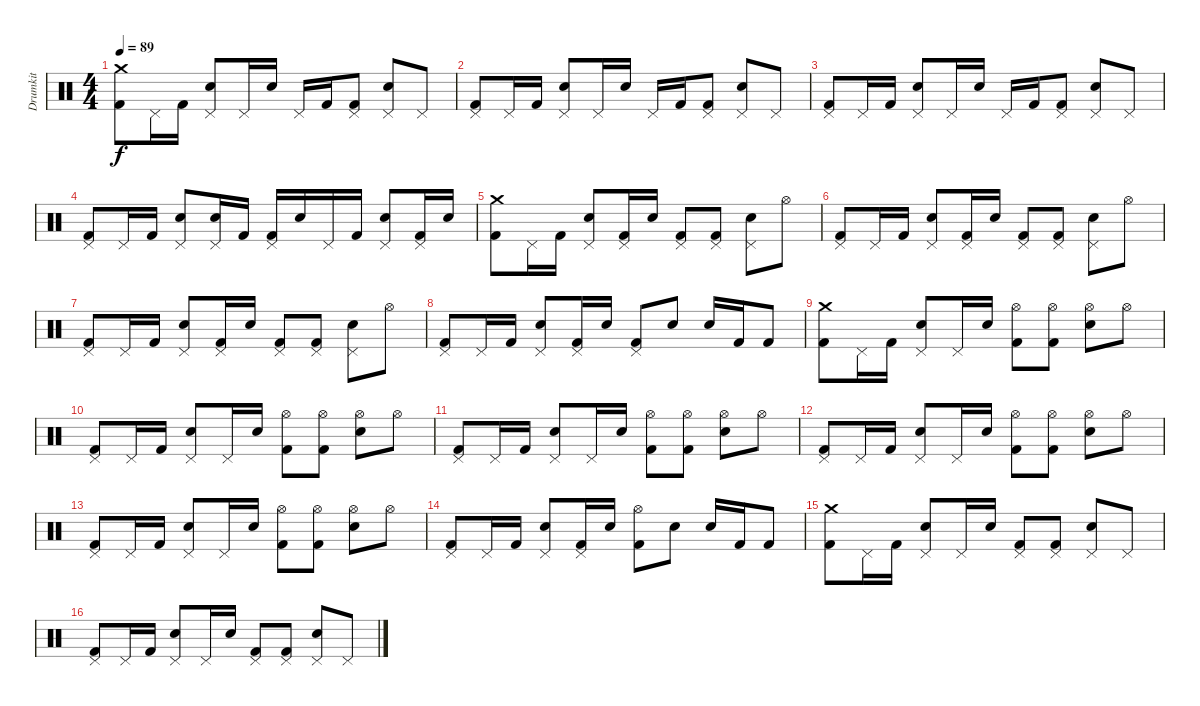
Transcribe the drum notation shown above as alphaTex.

\track ("Drumkit" "Drumkit") {instrument percussion}
\staff {score}
\articulation defaults
\ts (4 4)
\tempo 89
\clef neutral
\ks c
("Crash medium (hit)" "Kick (hit) 2").8{dy f} "Pedal Hi-Hat (hit)".16 "Kick (hit) 2".16 ("Pedal Hi-Hat (hit)" "Snare (hit) 2").8 "Pedal Hi-Hat (hit)".16 "Snare (hit) 2".16 "Pedal Hi-Hat (hit)".16 "Kick (hit) 2".16 ("Pedal Hi-Hat (hit)" "Kick (hit) 2").8 ("Pedal Hi-Hat (hit)" "Snare (hit) 2").8 "Pedal Hi-Hat (hit)".8 |
("Pedal Hi-Hat (hit)" "Kick (hit) 2").8 "Pedal Hi-Hat (hit)".16 "Kick (hit) 2".16 ("Pedal Hi-Hat (hit)" "Snare (hit) 2").8 "Pedal Hi-Hat (hit)".16 "Snare (hit) 2".16 "Pedal Hi-Hat (hit)".16 "Kick (hit) 2".16 ("Pedal Hi-Hat (hit)" "Kick (hit) 2").8 ("Pedal Hi-Hat (hit)" "Snare (hit) 2").8 "Pedal Hi-Hat (hit)".8 |
("Pedal Hi-Hat (hit)" "Kick (hit) 2").8 "Pedal Hi-Hat (hit)".16 "Kick (hit) 2".16 ("Pedal Hi-Hat (hit)" "Snare (hit) 2").8 "Pedal Hi-Hat (hit)".16 "Snare (hit) 2".16 "Pedal Hi-Hat (hit)".16 "Kick (hit) 2".16 ("Pedal Hi-Hat (hit)" "Kick (hit) 2").8 ("Pedal Hi-Hat (hit)" "Snare (hit) 2").8 "Pedal Hi-Hat (hit)".8 |
("Pedal Hi-Hat (hit)" "Kick (hit) 2").8 "Pedal Hi-Hat (hit)".16 "Kick (hit) 2".16 ("Pedal Hi-Hat (hit)" "Snare (hit) 2").8 ("Pedal Hi-Hat (hit)" "Snare (hit) 2").16 "Kick (hit) 2".16 ("Pedal Hi-Hat (hit)" "Kick (hit) 2").16 "Snare (hit) 2".16 "Pedal Hi-Hat (hit)".16 "Kick (hit) 2".16 ("Pedal Hi-Hat (hit)" "Snare (hit) 2").8 ("Pedal Hi-Hat (hit)" "Kick (hit) 2").16 "Snare (hit) 2".16 |
("Crash medium (hit)" "Kick (hit) 2").8 "Pedal Hi-Hat (hit)".16 "Kick (hit) 2".16 ("Pedal Hi-Hat (hit)" "Snare (hit) 2").8 ("Pedal Hi-Hat (hit)" "Kick (hit) 2").16 "Snare (hit) 2".16 ("Pedal Hi-Hat (hit)" "Kick (hit) 2").8 ("Pedal Hi-Hat (hit)" "Kick (hit) 2").8 ("Pedal Hi-Hat (hit)" "Snare (hit) 2").8 "Hi-Hat (open)".8 |
("Pedal Hi-Hat (hit)" "Kick (hit) 2").8 "Pedal Hi-Hat (hit)".16 "Kick (hit) 2".16 ("Pedal Hi-Hat (hit)" "Snare (hit) 2").8 ("Pedal Hi-Hat (hit)" "Kick (hit) 2").16 "Snare (hit) 2".16 ("Pedal Hi-Hat (hit)" "Kick (hit) 2").8 ("Pedal Hi-Hat (hit)" "Kick (hit) 2").8 ("Pedal Hi-Hat (hit)" "Snare (hit) 2").8 "Hi-Hat (open)".8 |
("Pedal Hi-Hat (hit)" "Kick (hit) 2").8 "Pedal Hi-Hat (hit)".16 "Kick (hit) 2".16 ("Pedal Hi-Hat (hit)" "Snare (hit) 2").8 ("Pedal Hi-Hat (hit)" "Kick (hit) 2").16 "Snare (hit) 2".16 ("Pedal Hi-Hat (hit)" "Kick (hit) 2").8 ("Pedal Hi-Hat (hit)" "Kick (hit) 2").8 ("Pedal Hi-Hat (hit)" "Snare (hit) 2").8 "Hi-Hat (open)".8 |
("Pedal Hi-Hat (hit)" "Kick (hit) 2").8 "Pedal Hi-Hat (hit)".16 "Kick (hit) 2".16 ("Pedal Hi-Hat (hit)" "Snare (hit) 2").8 ("Pedal Hi-Hat (hit)" "Kick (hit) 2").16 "Snare (hit) 2".16 ("Pedal Hi-Hat (hit)" "Kick (hit) 2").8 "Snare (hit) 2".8 "Snare (hit) 2".16 "Kick (hit) 2".16 "Kick (hit) 2".8 |
("Crash medium (hit)" "Kick (hit) 2").8 "Pedal Hi-Hat (hit)".16 "Kick (hit) 2".16 ("Pedal Hi-Hat (hit)" "Snare (hit) 2").8 "Pedal Hi-Hat (hit)".16 "Snare (hit) 2".16 ("Hi-Hat (open)" "Kick (hit) 2").8 ("Hi-Hat (open)" "Kick (hit) 2").8 ("Hi-Hat (open)" "Snare (hit) 2").8 "Hi-Hat (open)".8 |
("Pedal Hi-Hat (hit)" "Kick (hit) 2").8 "Pedal Hi-Hat (hit)".16 "Kick (hit) 2".16 ("Pedal Hi-Hat (hit)" "Snare (hit) 2").8 "Pedal Hi-Hat (hit)".16 "Snare (hit) 2".16 ("Hi-Hat (open)" "Kick (hit) 2").8 ("Hi-Hat (open)" "Kick (hit) 2").8 ("Hi-Hat (open)" "Snare (hit) 2").8 "Hi-Hat (open)".8 |
("Pedal Hi-Hat (hit)" "Kick (hit) 2").8 "Pedal Hi-Hat (hit)".16 "Kick (hit) 2".16 ("Pedal Hi-Hat (hit)" "Snare (hit) 2").8 "Pedal Hi-Hat (hit)".16 "Snare (hit) 2".16 ("Hi-Hat (open)" "Kick (hit) 2").8 ("Hi-Hat (open)" "Kick (hit) 2").8 ("Hi-Hat (open)" "Snare (hit) 2").8 "Hi-Hat (open)".8 |
("Pedal Hi-Hat (hit)" "Kick (hit) 2").8 "Pedal Hi-Hat (hit)".16 "Kick (hit) 2".16 ("Pedal Hi-Hat (hit)" "Snare (hit) 2").8 "Pedal Hi-Hat (hit)".16 "Snare (hit) 2".16 ("Hi-Hat (open)" "Kick (hit) 2").8 ("Hi-Hat (open)" "Kick (hit) 2").8 ("Hi-Hat (open)" "Snare (hit) 2").8 "Hi-Hat (open)".8 |
("Pedal Hi-Hat (hit)" "Kick (hit) 2").8 "Pedal Hi-Hat (hit)".16 "Kick (hit) 2".16 ("Pedal Hi-Hat (hit)" "Snare (hit) 2").8 "Pedal Hi-Hat (hit)".16 "Snare (hit) 2".16 ("Hi-Hat (open)" "Kick (hit) 2").8 ("Hi-Hat (open)" "Kick (hit) 2").8 ("Hi-Hat (open)" "Snare (hit) 2").8 "Hi-Hat (open)".8 |
("Pedal Hi-Hat (hit)" "Kick (hit) 2").8 "Pedal Hi-Hat (hit)".16 "Kick (hit) 2".16 ("Pedal Hi-Hat (hit)" "Snare (hit) 2").8 ("Pedal Hi-Hat (hit)" "Kick (hit) 2").16 "Snare (hit) 2".16 ("Hi-Hat (open)" "Kick (hit) 2").8 "Snare (hit) 2".8 "Snare (hit) 2".16 "Kick (hit) 2".16 "Kick (hit) 2".8 |
("Crash medium (hit)" "Kick (hit) 2").8 "Pedal Hi-Hat (hit)".16 "Kick (hit) 2".16 ("Pedal Hi-Hat (hit)" "Snare (hit) 2").8 "Pedal Hi-Hat (hit)".16 "Snare (hit) 2".16 ("Pedal Hi-Hat (hit)" "Kick (hit) 2").8 ("Pedal Hi-Hat (hit)" "Kick (hit) 2").8 ("Pedal Hi-Hat (hit)" "Snare (hit) 2").8 "Pedal Hi-Hat (hit)".8 |
("Pedal Hi-Hat (hit)" "Kick (hit) 2").8 "Pedal Hi-Hat (hit)".16 "Kick (hit) 2".16 ("Pedal Hi-Hat (hit)" "Snare (hit) 2").8 "Pedal Hi-Hat (hit)".16 "Snare (hit) 2".16 ("Pedal Hi-Hat (hit)" "Kick (hit) 2").8 ("Pedal Hi-Hat (hit)" "Kick (hit) 2").8 ("Pedal Hi-Hat (hit)" "Snare (hit) 2").8 "Pedal Hi-Hat (hit)".8
